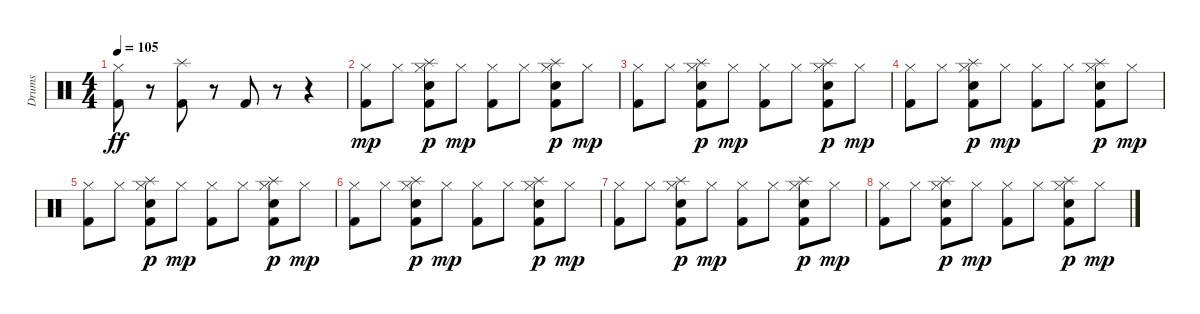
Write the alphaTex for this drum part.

\track ("Drums" "Drums") {instrument percussion}
\staff {score}
\articulation defaults
\ts (4 4)
\tempo 105
\clef neutral
\ks c
("Hi-Hat (closed)" "Kick (hit) 2").8{dy ff} r.8 ("Splash (hit)" "Kick (hit) 2").8 r.8 "Kick (hit) 2".8 r.8 r.4 |
("Hi-Hat (closed)" "Kick (hit) 2").8{dy mp} "Hi-Hat (closed)".8 ("Splash (hit)" "Hi-Hat (closed)" "Snare (hit) 2" "Kick (hit) 2").8{dy p} "Hi-Hat (closed)".8{dy mp} ("Hi-Hat (closed)" "Kick (hit) 2").8 "Hi-Hat (closed)".8 ("Splash (hit)" "Hi-Hat (closed)" "Snare (hit) 2" "Kick (hit) 2").8{dy p} "Hi-Hat (closed)".8{dy mp} |
("Hi-Hat (closed)" "Kick (hit) 2").8 "Hi-Hat (closed)".8 ("Splash (hit)" "Hi-Hat (closed)" "Snare (hit) 2" "Kick (hit) 2").8{dy p} "Hi-Hat (closed)".8{dy mp} ("Hi-Hat (closed)" "Kick (hit) 2").8 "Hi-Hat (closed)".8 ("Splash (hit)" "Hi-Hat (closed)" "Snare (hit) 2" "Kick (hit) 2").8{dy p} "Hi-Hat (closed)".8{dy mp} |
("Hi-Hat (closed)" "Kick (hit) 2").8 "Hi-Hat (closed)".8 ("Splash (hit)" "Hi-Hat (closed)" "Snare (hit) 2" "Kick (hit) 2").8{dy p} "Hi-Hat (closed)".8{dy mp} ("Hi-Hat (closed)" "Kick (hit) 2").8 "Hi-Hat (closed)".8 ("Splash (hit)" "Hi-Hat (closed)" "Snare (hit) 2" "Kick (hit) 2").8{dy p} "Hi-Hat (closed)".8{dy mp} |
("Hi-Hat (closed)" "Kick (hit) 2").8 "Hi-Hat (closed)".8 ("Splash (hit)" "Hi-Hat (closed)" "Snare (hit) 2" "Kick (hit) 2").8{dy p} "Hi-Hat (closed)".8{dy mp} ("Hi-Hat (closed)" "Kick (hit) 2").8 "Hi-Hat (closed)".8 ("Splash (hit)" "Hi-Hat (closed)" "Snare (hit) 2" "Kick (hit) 2").8{dy p} "Hi-Hat (closed)".8{dy mp} |
("Hi-Hat (closed)" "Kick (hit) 2").8 "Hi-Hat (closed)".8 ("Splash (hit)" "Hi-Hat (closed)" "Snare (hit) 2" "Kick (hit) 2").8{dy p} "Hi-Hat (closed)".8{dy mp} ("Hi-Hat (closed)" "Kick (hit) 2").8 "Hi-Hat (closed)".8 ("Splash (hit)" "Hi-Hat (closed)" "Snare (hit) 2" "Kick (hit) 2").8{dy p} "Hi-Hat (closed)".8{dy mp} |
("Hi-Hat (closed)" "Kick (hit) 2").8 "Hi-Hat (closed)".8 ("Splash (hit)" "Hi-Hat (closed)" "Snare (hit) 2" "Kick (hit) 2").8{dy p} "Hi-Hat (closed)".8{dy mp} ("Hi-Hat (closed)" "Kick (hit) 2").8 "Hi-Hat (closed)".8 ("Splash (hit)" "Hi-Hat (closed)" "Snare (hit) 2" "Kick (hit) 2").8{dy p} "Hi-Hat (closed)".8{dy mp} |
("Hi-Hat (closed)" "Kick (hit) 2").8 "Hi-Hat (closed)".8 ("Splash (hit)" "Hi-Hat (closed)" "Snare (hit) 2" "Kick (hit) 2").8{dy p} "Hi-Hat (closed)".8{dy mp} ("Hi-Hat (closed)" "Kick (hit) 2").8 "Hi-Hat (closed)".8 ("Splash (hit)" "Hi-Hat (closed)" "Snare (hit) 2" "Kick (hit) 2").8{dy p} "Hi-Hat (closed)".8{dy mp}
